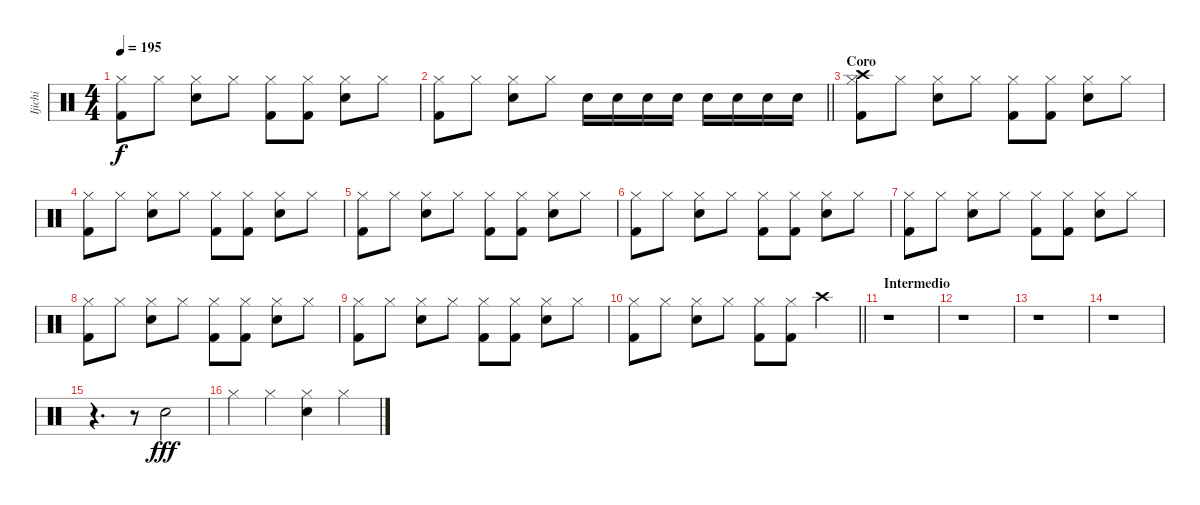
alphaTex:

\track ("Ijichi" "Ijichi") {instrument percussion}
\staff {score}
\articulation defaults
\ts (4 4)
\tempo 195
\clef neutral
\ks c
("Hi-Hat (closed)" "Kick (hit) 2").8{dy f} "Hi-Hat (closed)".8 ("Hi-Hat (closed)" "Snare (hit) 2").8 "Hi-Hat (closed)".8 ("Hi-Hat (closed)" "Kick (hit) 2").8 ("Hi-Hat (closed)" "Kick (hit) 2").8 ("Hi-Hat (closed)" "Snare (hit) 2").8 "Hi-Hat (closed)".8 |
\barLineRight lightlight
("Hi-Hat (closed)" "Kick (hit) 2").8 "Hi-Hat (closed)".8 ("Hi-Hat (closed)" "Snare (hit) 2").8 "Hi-Hat (closed)".8 "Snare (hit) 2".16 "Snare (hit) 2".16 "Snare (hit) 2".16 "Snare (hit) 2".16 "Snare (hit) 2".16 "Snare (hit) 2".16 "Snare (hit) 2".16 "Snare (hit) 2".16 |
\section ("" "Coro")
("Hi-Hat (closed)" "Kick (hit) 2" "Crash high (hit)").8 "Hi-Hat (closed)".8 ("Hi-Hat (closed)" "Snare (hit) 2").8 "Hi-Hat (closed)".8 ("Hi-Hat (closed)" "Kick (hit) 2").8 ("Hi-Hat (closed)" "Kick (hit) 2").8 ("Hi-Hat (closed)" "Snare (hit) 2").8 "Hi-Hat (closed)".8 |
("Hi-Hat (closed)" "Kick (hit) 2").8 "Hi-Hat (closed)".8 ("Hi-Hat (closed)" "Snare (hit) 2").8 "Hi-Hat (closed)".8 ("Hi-Hat (closed)" "Kick (hit) 2").8 ("Hi-Hat (closed)" "Kick (hit) 2").8 ("Hi-Hat (closed)" "Snare (hit) 2").8 "Hi-Hat (closed)".8 |
("Hi-Hat (closed)" "Kick (hit) 2").8 "Hi-Hat (closed)".8 ("Hi-Hat (closed)" "Snare (hit) 2").8 "Hi-Hat (closed)".8 ("Hi-Hat (closed)" "Kick (hit) 2").8 ("Hi-Hat (closed)" "Kick (hit) 2").8 ("Hi-Hat (closed)" "Snare (hit) 2").8 "Hi-Hat (closed)".8 |
("Hi-Hat (closed)" "Kick (hit) 2").8 "Hi-Hat (closed)".8 ("Hi-Hat (closed)" "Snare (hit) 2").8 "Hi-Hat (closed)".8 ("Hi-Hat (closed)" "Kick (hit) 2").8 ("Hi-Hat (closed)" "Kick (hit) 2").8 ("Hi-Hat (closed)" "Snare (hit) 2").8 "Hi-Hat (closed)".8 |
("Hi-Hat (closed)" "Kick (hit) 2").8 "Hi-Hat (closed)".8 ("Hi-Hat (closed)" "Snare (hit) 2").8 "Hi-Hat (closed)".8 ("Hi-Hat (closed)" "Kick (hit) 2").8 ("Hi-Hat (closed)" "Kick (hit) 2").8 ("Hi-Hat (closed)" "Snare (hit) 2").8 "Hi-Hat (closed)".8 |
("Hi-Hat (closed)" "Kick (hit) 2").8 "Hi-Hat (closed)".8 ("Hi-Hat (closed)" "Snare (hit) 2").8 "Hi-Hat (closed)".8 ("Hi-Hat (closed)" "Kick (hit) 2").8 ("Hi-Hat (closed)" "Kick (hit) 2").8 ("Hi-Hat (closed)" "Snare (hit) 2").8 "Hi-Hat (closed)".8 |
("Hi-Hat (closed)" "Kick (hit) 2").8 "Hi-Hat (closed)".8 ("Hi-Hat (closed)" "Snare (hit) 2").8 "Hi-Hat (closed)".8 ("Hi-Hat (closed)" "Kick (hit) 2").8 ("Hi-Hat (closed)" "Kick (hit) 2").8 ("Hi-Hat (closed)" "Snare (hit) 2").8 "Hi-Hat (closed)".8 |
\barLineRight lightlight
("Hi-Hat (closed)" "Kick (hit) 2").8 "Hi-Hat (closed)".8 ("Hi-Hat (closed)" "Snare (hit) 2").8 "Hi-Hat (closed)".8 ("Hi-Hat (closed)" "Kick (hit) 2").8 ("Hi-Hat (closed)" "Kick (hit) 2").8 "Crash high (hit)".4 |
\section ("" "Intermedio")
r.1 |
r.1 |
r.1 |
r.1 |
r.4{d} r.8 "Snare (hit) 2".2{dy fff} |
"Hi-Hat (closed)".4 "Hi-Hat (closed)".4 ("Hi-Hat (closed)" "Snare (hit) 2").4 "Hi-Hat (closed)".4
